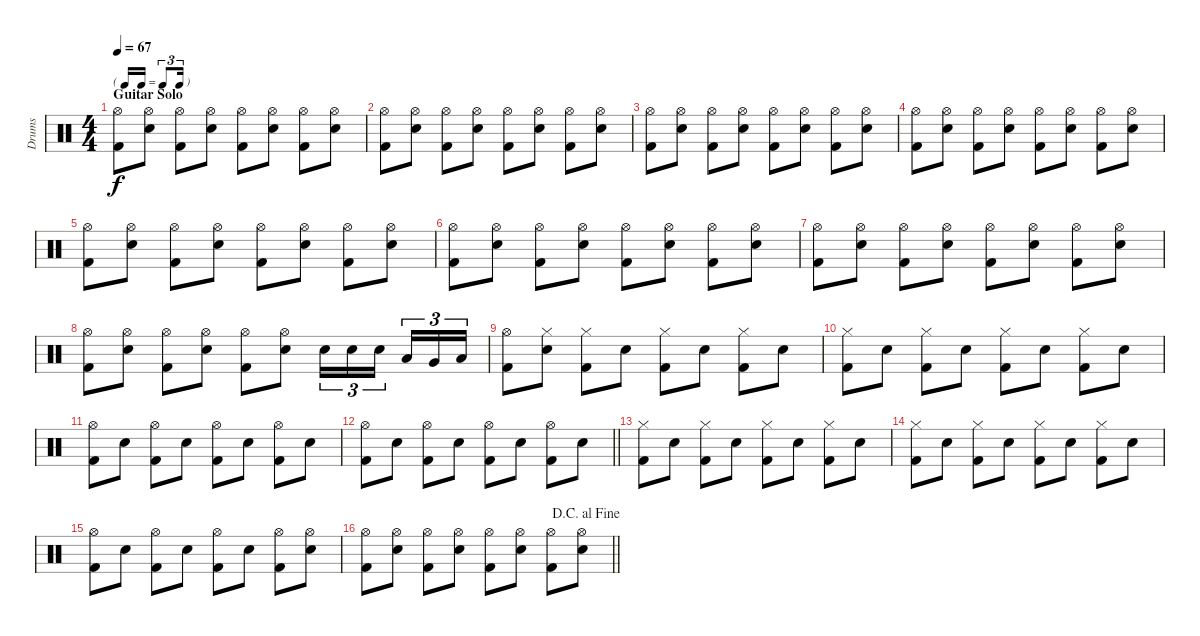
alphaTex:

\track ("Drums" "Drums") {instrument percussion}
\staff {score}
\articulation defaults
\ts (4 4)
\tf triplet16th
\section ("" "Guitar Solo")
\tempo 67
\clef neutral
\ks c
("Hi-Hat (open)" "Kick (hit) 2").8{dy f} ("Electric Snare (hit)" "Hi-Hat (open)").8 ("Hi-Hat (open)" "Kick (hit) 2").8 ("Electric Snare (hit)" "Hi-Hat (open)").8 ("Hi-Hat (open)" "Kick (hit) 2").8 ("Electric Snare (hit)" "Hi-Hat (open)").8 ("Hi-Hat (open)" "Kick (hit) 2").8 ("Electric Snare (hit)" "Hi-Hat (open)").8 |
("Hi-Hat (open)" "Kick (hit) 2").8 ("Electric Snare (hit)" "Hi-Hat (open)").8 ("Hi-Hat (open)" "Kick (hit) 2").8 ("Electric Snare (hit)" "Hi-Hat (open)").8 ("Hi-Hat (open)" "Kick (hit) 2").8 ("Electric Snare (hit)" "Hi-Hat (open)").8 ("Hi-Hat (open)" "Kick (hit) 2").8 ("Electric Snare (hit)" "Hi-Hat (open)").8 |
("Hi-Hat (open)" "Kick (hit) 2").8 ("Electric Snare (hit)" "Hi-Hat (open)").8 ("Hi-Hat (open)" "Kick (hit) 2").8 ("Electric Snare (hit)" "Hi-Hat (open)").8 ("Hi-Hat (open)" "Kick (hit) 2").8 ("Electric Snare (hit)" "Hi-Hat (open)").8 ("Hi-Hat (open)" "Kick (hit) 2").8 ("Electric Snare (hit)" "Hi-Hat (open)").8 |
("Hi-Hat (open)" "Kick (hit) 2").8 ("Electric Snare (hit)" "Hi-Hat (open)").8 ("Hi-Hat (open)" "Kick (hit) 2").8 ("Electric Snare (hit)" "Hi-Hat (open)").8 ("Hi-Hat (open)" "Kick (hit) 2").8 ("Electric Snare (hit)" "Hi-Hat (open)").8 ("Hi-Hat (open)" "Kick (hit) 2").8 ("Electric Snare (hit)" "Hi-Hat (open)").8 |
("Hi-Hat (open)" "Kick (hit) 2").8 ("Electric Snare (hit)" "Hi-Hat (open)").8 ("Hi-Hat (open)" "Kick (hit) 2").8 ("Electric Snare (hit)" "Hi-Hat (open)").8 ("Hi-Hat (open)" "Kick (hit) 2").8 ("Electric Snare (hit)" "Hi-Hat (open)").8 ("Hi-Hat (open)" "Kick (hit) 2").8 ("Electric Snare (hit)" "Hi-Hat (open)").8 |
("Hi-Hat (open)" "Kick (hit) 2").8 ("Electric Snare (hit)" "Hi-Hat (open)").8 ("Hi-Hat (open)" "Kick (hit) 2").8 ("Electric Snare (hit)" "Hi-Hat (open)").8 ("Hi-Hat (open)" "Kick (hit) 2").8 ("Electric Snare (hit)" "Hi-Hat (open)").8 ("Hi-Hat (open)" "Kick (hit) 2").8 ("Electric Snare (hit)" "Hi-Hat (open)").8 |
("Hi-Hat (open)" "Kick (hit) 2").8 ("Electric Snare (hit)" "Hi-Hat (open)").8 ("Hi-Hat (open)" "Kick (hit) 2").8 ("Electric Snare (hit)" "Hi-Hat (open)").8 ("Hi-Hat (open)" "Kick (hit) 2").8 ("Electric Snare (hit)" "Hi-Hat (open)").8 ("Hi-Hat (open)" "Kick (hit) 2").8 ("Electric Snare (hit)" "Hi-Hat (open)").8 |
("Hi-Hat (open)" "Kick (hit) 2").8 ("Electric Snare (hit)" "Hi-Hat (open)").8 ("Hi-Hat (open)" "Kick (hit) 2").8 ("Electric Snare (hit)" "Hi-Hat (open)").8 ("Hi-Hat (open)" "Kick (hit) 2").8 ("Electric Snare (hit)" "Hi-Hat (open)").8 "Electric Snare (hit)".16{tu (3 2)} "Electric Snare (hit)".16{tu (3 2)} "Electric Snare (hit)".16{tu (3 2) beam splitsecondary} "Low Floor Tom (hit)".16{tu (3 2)} "Very Low Tom (hit)".16{tu (3 2)} "Low Tom (hit)".16{tu (3 2)} |
("Hi-Hat (open)" "Kick (hit) 2").8 ("Electric Snare (hit)" "Hi-Hat (closed)").8 ("Hi-Hat (closed)" "Kick (hit) 2").8 "Electric Snare (hit)".8 ("Hi-Hat (closed)" "Kick (hit) 2").8 "Electric Snare (hit)".8 ("Hi-Hat (closed)" "Kick (hit) 2").8 "Electric Snare (hit)".8 |
("Hi-Hat (closed)" "Kick (hit) 2").8 "Electric Snare (hit)".8 ("Hi-Hat (closed)" "Kick (hit) 2").8 "Electric Snare (hit)".8 ("Hi-Hat (closed)" "Kick (hit) 2").8 "Electric Snare (hit)".8 ("Hi-Hat (closed)" "Kick (hit) 2").8 "Electric Snare (hit)".8 |
("Hi-Hat (open)" "Kick (hit) 2").8 "Electric Snare (hit)".8 ("Hi-Hat (open)" "Kick (hit) 2").8 "Electric Snare (hit)".8 ("Hi-Hat (open)" "Kick (hit) 2").8 "Electric Snare (hit)".8 ("Hi-Hat (open)" "Kick (hit) 2").8 "Electric Snare (hit)".8 |
\barLineRight lightlight
("Hi-Hat (open)" "Kick (hit) 2").8 "Electric Snare (hit)".8 ("Hi-Hat (open)" "Kick (hit) 2").8 "Electric Snare (hit)".8 ("Hi-Hat (open)" "Kick (hit) 2").8 "Electric Snare (hit)".8 ("Hi-Hat (open)" "Kick (hit) 2").8 "Electric Snare (hit)".8 |
("Hi-Hat (closed)" "Kick (hit) 2").8 "Electric Snare (hit)".8 ("Hi-Hat (closed)" "Kick (hit) 2").8 "Electric Snare (hit)".8 ("Hi-Hat (closed)" "Kick (hit) 2").8 "Electric Snare (hit)".8 ("Hi-Hat (closed)" "Kick (hit) 2").8 "Electric Snare (hit)".8 |
("Hi-Hat (closed)" "Kick (hit) 2").8 "Electric Snare (hit)".8 ("Hi-Hat (closed)" "Kick (hit) 2").8 "Electric Snare (hit)".8 ("Hi-Hat (closed)" "Kick (hit) 2").8 "Electric Snare (hit)".8 ("Hi-Hat (closed)" "Kick (hit) 2").8 "Electric Snare (hit)".8 |
("Hi-Hat (open)" "Kick (hit) 2").8 "Electric Snare (hit)".8 ("Hi-Hat (open)" "Kick (hit) 2").8 "Electric Snare (hit)".8 ("Hi-Hat (open)" "Kick (hit) 2").8 "Electric Snare (hit)".8 ("Hi-Hat (open)" "Kick (hit) 2").8 ("Electric Snare (hit)" "Hi-Hat (open)").8 |
\jump dacapoalfine
\barLineRight lightlight
("Hi-Hat (open)" "Kick (hit) 2").8 ("Electric Snare (hit)" "Hi-Hat (open)").8 ("Hi-Hat (open)" "Kick (hit) 2").8 ("Electric Snare (hit)" "Hi-Hat (open)").8 ("Hi-Hat (open)" "Kick (hit) 2").8 ("Electric Snare (hit)" "Hi-Hat (open)").8 ("Hi-Hat (open)" "Kick (hit) 2").8 ("Electric Snare (hit)" "Hi-Hat (open)").8
